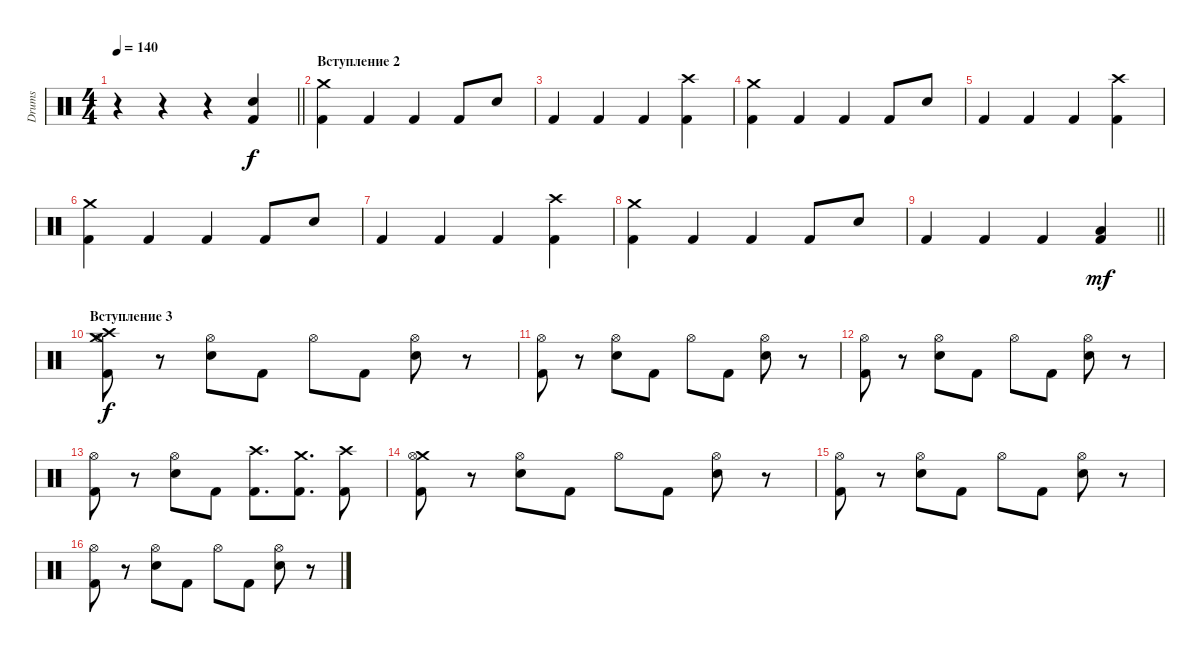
\track ("Drums" "Drums") {instrument percussion}
\staff {score}
\articulation defaults
\ts (4 4)
\tempo 140
\clef neutral
\barLineRight lightlight
\ks c
r.4{dy f} r.4 r.4 ("Electric Snare (hit)" "Kick (hit) 2").4 |
\section ("" "Вступление 2")
("Crash medium (hit)" "Kick (hit) 2").4 "Kick (hit) 2".4 "Kick (hit) 2".4 "Kick (hit) 2".8 "Electric Snare (hit)".8 |
"Kick (hit) 2".4 "Kick (hit) 2".4 "Kick (hit) 2".4 ("Crash high (hit)" "Kick (hit) 2").4 |
("Crash medium (hit)" "Kick (hit) 2").4 "Kick (hit) 2".4 "Kick (hit) 2".4 "Kick (hit) 2".8 "Electric Snare (hit)".8 |
"Kick (hit) 2".4 "Kick (hit) 2".4 "Kick (hit) 2".4 ("Crash high (hit)" "Kick (hit) 2").4 |
("Crash medium (hit)" "Kick (hit) 2").4 "Kick (hit) 2".4 "Kick (hit) 2".4 "Kick (hit) 2".8 "Electric Snare (hit)".8 |
"Kick (hit) 2".4 "Kick (hit) 2".4 "Kick (hit) 2".4 ("Crash high (hit)" "Kick (hit) 2").4 |
("Crash medium (hit)" "Kick (hit) 2").4 "Kick (hit) 2".4 "Kick (hit) 2".4 "Kick (hit) 2".8 "Electric Snare (hit)".8 |
\barLineRight lightlight "Kick (hit) 2".4 "Kick (hit) 2".4 "Kick (hit) 2".4
("Low Tom (hit)" "Kick (hit) 2").4{dy mf} |
\section ("" "Вступление 3")
("Crash high (hit)" "Crash medium (hit)" "Kick (hit) 2" "Hi-Hat (open)").8{dy f} r.8 ("Electric Snare (hit)" "Hi-Hat (open)").8 "Kick (hit) 2".8 "Hi-Hat (open)".8 "Kick (hit) 2".8 ("Electric Snare (hit)" "Hi-Hat (open)").8 r.8 |
("Kick (hit) 2" "Hi-Hat (open)").8 r.8 ("Electric Snare (hit)" "Hi-Hat (open)").8 "Kick (hit) 2".8 "Hi-Hat (open)".8 "Kick (hit) 2".8 ("Electric Snare (hit)" "Hi-Hat (open)").8 r.8 |
("Kick (hit) 2" "Hi-Hat (open)").8 r.8 ("Electric Snare (hit)" "Hi-Hat (open)").8 "Kick (hit) 2".8 "Hi-Hat (open)".8 "Kick (hit) 2".8 ("Electric Snare (hit)" "Hi-Hat (open)").8 r.8 |
("Kick (hit) 2" "Hi-Hat (open)").8 r.8 ("Electric Snare (hit)" "Hi-Hat (open)").8 "Kick (hit) 2".8 ("Crash high (hit)" "Kick (hit) 2").8{d} ("Crash medium (hit)" "Kick (hit) 2").8{d} ("Crash high (hit)" "Kick (hit) 2").8 |
("Crash medium (hit)" "Kick (hit) 2" "Hi-Hat (open)").8 r.8 ("Electric Snare (hit)" "Hi-Hat (open)").8 "Kick (hit) 2".8 "Hi-Hat (open)".8 "Kick (hit) 2".8 ("Electric Snare (hit)" "Hi-Hat (open)").8 r.8 |
("Kick (hit) 2" "Hi-Hat (open)").8 r.8 ("Electric Snare (hit)" "Hi-Hat (open)").8 "Kick (hit) 2".8 "Hi-Hat (open)".8 "Kick (hit) 2".8 ("Electric Snare (hit)" "Hi-Hat (open)").8 r.8 |
("Kick (hit) 2" "Hi-Hat (open)").8 r.8 ("Electric Snare (hit)" "Hi-Hat (open)").8 "Kick (hit) 2".8 "Hi-Hat (open)".8 "Kick (hit) 2".8 ("Electric Snare (hit)" "Hi-Hat (open)").8 r.8
